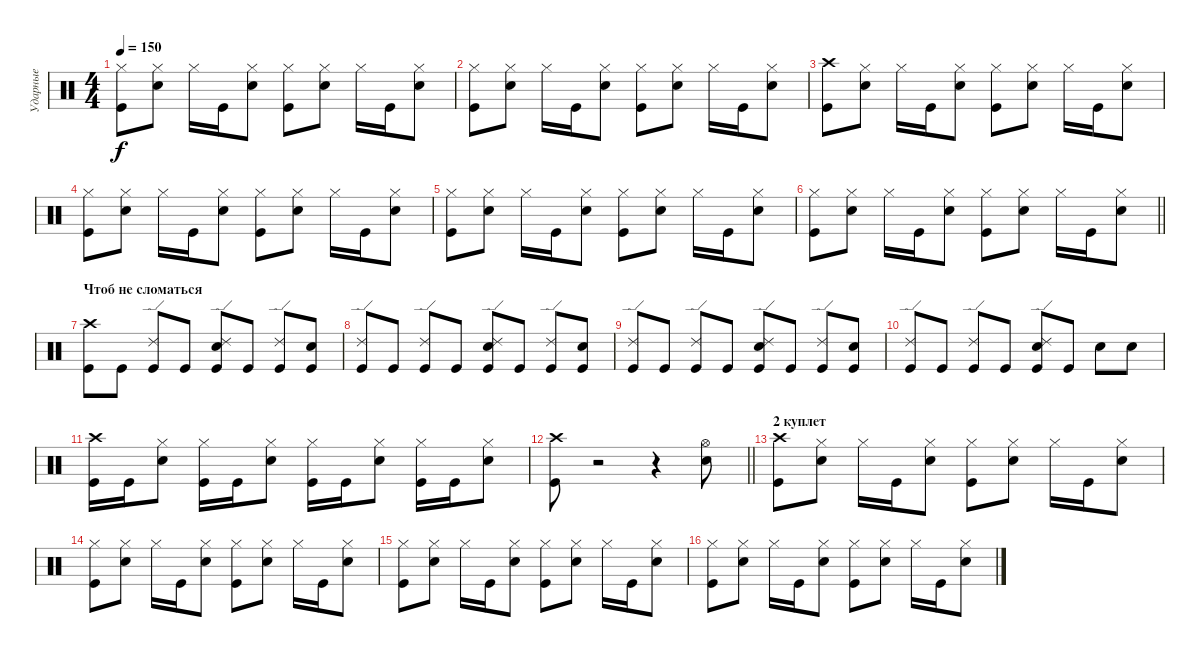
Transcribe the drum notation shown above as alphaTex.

\track ("Ударные" "Ударные") {instrument percussion}
\staff {score}
\articulation defaults
\ts (4 4)
\tempo 150
\clef neutral
\ks c
("Hi-Hat (closed)" "Kick (hit)").8{dy f} ("Hi-Hat (closed)" "Snare (hit) 2").8 "Hi-Hat (closed)".16 "Kick (hit)".16 ("Hi-Hat (closed)" "Snare (hit) 2").8 ("Hi-Hat (closed)" "Kick (hit)").8 ("Hi-Hat (closed)" "Snare (hit) 2").8 "Hi-Hat (closed)".16 "Kick (hit)".16 ("Hi-Hat (closed)" "Snare (hit) 2").8 |
("Hi-Hat (closed)" "Kick (hit)").8 ("Hi-Hat (closed)" "Snare (hit) 2").8 "Hi-Hat (closed)".16 "Kick (hit)".16 ("Hi-Hat (closed)" "Snare (hit) 2").8 ("Hi-Hat (closed)" "Kick (hit)").8 ("Hi-Hat (closed)" "Snare (hit) 2").8 "Hi-Hat (closed)".16 "Kick (hit)".16 ("Hi-Hat (closed)" "Snare (hit) 2").8 |
("Crash high (hit)" "Kick (hit)").8 ("Hi-Hat (closed)" "Snare (hit) 2").8 "Hi-Hat (closed)".16 "Kick (hit)".16 ("Hi-Hat (closed)" "Snare (hit) 2").8 ("Hi-Hat (closed)" "Kick (hit)").8 ("Hi-Hat (closed)" "Snare (hit) 2").8 "Hi-Hat (closed)".16 "Kick (hit)".16 ("Hi-Hat (closed)" "Snare (hit) 2").8 |
("Hi-Hat (closed)" "Kick (hit)").8 ("Hi-Hat (closed)" "Snare (hit) 2").8 "Hi-Hat (closed)".16 "Kick (hit)".16 ("Hi-Hat (closed)" "Snare (hit) 2").8 ("Hi-Hat (closed)" "Kick (hit)").8 ("Hi-Hat (closed)" "Snare (hit) 2").8 "Hi-Hat (closed)".16 "Kick (hit)".16 ("Hi-Hat (closed)" "Snare (hit) 2").8 |
("Hi-Hat (closed)" "Kick (hit)").8 ("Hi-Hat (closed)" "Snare (hit) 2").8 "Hi-Hat (closed)".16 "Kick (hit)".16 ("Hi-Hat (closed)" "Snare (hit) 2").8 ("Hi-Hat (closed)" "Kick (hit)").8 ("Hi-Hat (closed)" "Snare (hit) 2").8 "Hi-Hat (closed)".16 "Kick (hit)".16 ("Hi-Hat (closed)" "Snare (hit) 2").8 |
\barLineRight lightlight
("Hi-Hat (closed)" "Kick (hit)").8 ("Hi-Hat (closed)" "Snare (hit) 2").8 "Hi-Hat (closed)".16 "Kick (hit)".16 ("Hi-Hat (closed)" "Snare (hit) 2").8 ("Hi-Hat (closed)" "Kick (hit)").8 ("Hi-Hat (closed)" "Snare (hit) 2").8 "Hi-Hat (closed)".16 "Kick (hit)".16 ("Hi-Hat (closed)" "Snare (hit) 2").8 |
\section ("" "Чтоб не сломаться")
("Crash high (hit)" "Kick (hit)").8 "Kick (hit)".8 ("Ride (edge) 2" "Kick (hit)").8 "Kick (hit)".8 ("Ride (edge) 2" "Snare (hit) 2" "Kick (hit)").8 "Kick (hit)".8 ("Ride (edge) 2" "Kick (hit)").8 ("Snare (hit) 2" "Kick (hit)").8 |
("Ride (edge) 2" "Kick (hit)").8 "Kick (hit)".8 ("Ride (edge) 2" "Kick (hit)").8 "Kick (hit)".8 ("Ride (edge) 2" "Snare (hit) 2" "Kick (hit)").8 "Kick (hit)".8 ("Ride (edge) 2" "Kick (hit)").8 ("Snare (hit) 2" "Kick (hit)").8 |
("Ride (edge) 2" "Kick (hit)").8 "Kick (hit)".8 ("Ride (edge) 2" "Kick (hit)").8 "Kick (hit)".8 ("Ride (edge) 2" "Snare (hit) 2" "Kick (hit)").8 "Kick (hit)".8 ("Ride (edge) 2" "Kick (hit)").8 ("Snare (hit) 2" "Kick (hit)").8 |
("Ride (edge) 2" "Kick (hit)").8 "Kick (hit)".8 ("Ride (edge) 2" "Kick (hit)").8 "Kick (hit)".8 ("Ride (edge) 2" "Snare (hit) 2" "Kick (hit)").8 "Kick (hit)".8 "Snare (hit) 2".8 "Snare (hit) 2".8 |
("Crash high (hit)" "Kick (hit)").16 "Kick (hit)".16 ("Hi-Hat (closed)" "Snare (hit) 2").8 ("Hi-Hat (closed)" "Kick (hit)").16 "Kick (hit)".16 ("Hi-Hat (closed)" "Snare (hit) 2").8 ("Hi-Hat (closed)" "Kick (hit)").16 "Kick (hit)".16 ("Hi-Hat (closed)" "Snare (hit) 2").8 ("Hi-Hat (closed)" "Kick (hit)").16 "Kick (hit)".16 ("Hi-Hat (closed)" "Snare (hit) 2").8 |
\barLineRight lightlight
("Crash high (hit)" "Kick (hit)").8 r.2 r.4 ("Hi-Hat (open)" "Snare (hit) 2").8 |
\section ("" "2 куплет")
("Crash high (hit)" "Kick (hit)").8 ("Hi-Hat (closed)" "Snare (hit) 2").8 "Hi-Hat (closed)".16 "Kick (hit)".16 ("Hi-Hat (closed)" "Snare (hit) 2").8 ("Hi-Hat (closed)" "Kick (hit)").8 ("Hi-Hat (closed)" "Snare (hit) 2").8 "Hi-Hat (closed)".16 "Kick (hit)".16 ("Hi-Hat (closed)" "Snare (hit) 2").8 |
("Hi-Hat (closed)" "Kick (hit)").8 ("Hi-Hat (closed)" "Snare (hit) 2").8 "Hi-Hat (closed)".16 "Kick (hit)".16 ("Hi-Hat (closed)" "Snare (hit) 2").8 ("Hi-Hat (closed)" "Kick (hit)").8 ("Hi-Hat (closed)" "Snare (hit) 2").8 "Hi-Hat (closed)".16 "Kick (hit)".16 ("Hi-Hat (closed)" "Snare (hit) 2").8 |
("Hi-Hat (closed)" "Kick (hit)").8 ("Hi-Hat (closed)" "Snare (hit) 2").8 "Hi-Hat (closed)".16 "Kick (hit)".16 ("Hi-Hat (closed)" "Snare (hit) 2").8 ("Hi-Hat (closed)" "Kick (hit)").8 ("Hi-Hat (closed)" "Snare (hit) 2").8 "Hi-Hat (closed)".16 "Kick (hit)".16 ("Hi-Hat (closed)" "Snare (hit) 2").8 |
("Hi-Hat (closed)" "Kick (hit)").8 ("Hi-Hat (closed)" "Snare (hit) 2").8 "Hi-Hat (closed)".16 "Kick (hit)".16 ("Hi-Hat (closed)" "Snare (hit) 2").8 ("Hi-Hat (closed)" "Kick (hit)").8 ("Hi-Hat (closed)" "Snare (hit) 2").8 "Hi-Hat (closed)".16 "Kick (hit)".16 ("Hi-Hat (closed)" "Snare (hit) 2").8
